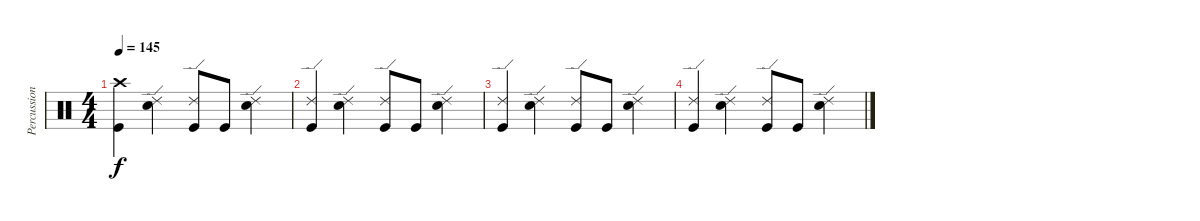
\track ("Percussion" "Percussion") {instrument percussion}
\staff {score}
\articulation defaults
\ts (4 4)
\tempo 145
\clef neutral
\ks c
("Kick (hit)" "Crash high (hit)").4{dy f} ("Ride (edge) 2" "Snare (hit) 2").4 ("Kick (hit)" "Ride (edge) 2").8 "Kick (hit)".8 ("Ride (edge) 2" "Snare (hit) 2").4 |
("Kick (hit)" "Ride (edge) 2").4 ("Ride (edge) 2" "Snare (hit) 2").4 ("Kick (hit)" "Ride (edge) 2").8 "Kick (hit)".8 ("Ride (edge) 2" "Snare (hit) 2").4 |
("Kick (hit)" "Ride (edge) 2").4 ("Ride (edge) 2" "Snare (hit) 2").4 ("Kick (hit)" "Ride (edge) 2").8 "Kick (hit)".8 ("Ride (edge) 2" "Snare (hit) 2").4 |
("Kick (hit)" "Ride (edge) 2").4 ("Ride (edge) 2" "Snare (hit) 2").4 ("Kick (hit)" "Ride (edge) 2").8 "Kick (hit)".8 ("Ride (edge) 2" "Snare (hit) 2").4
